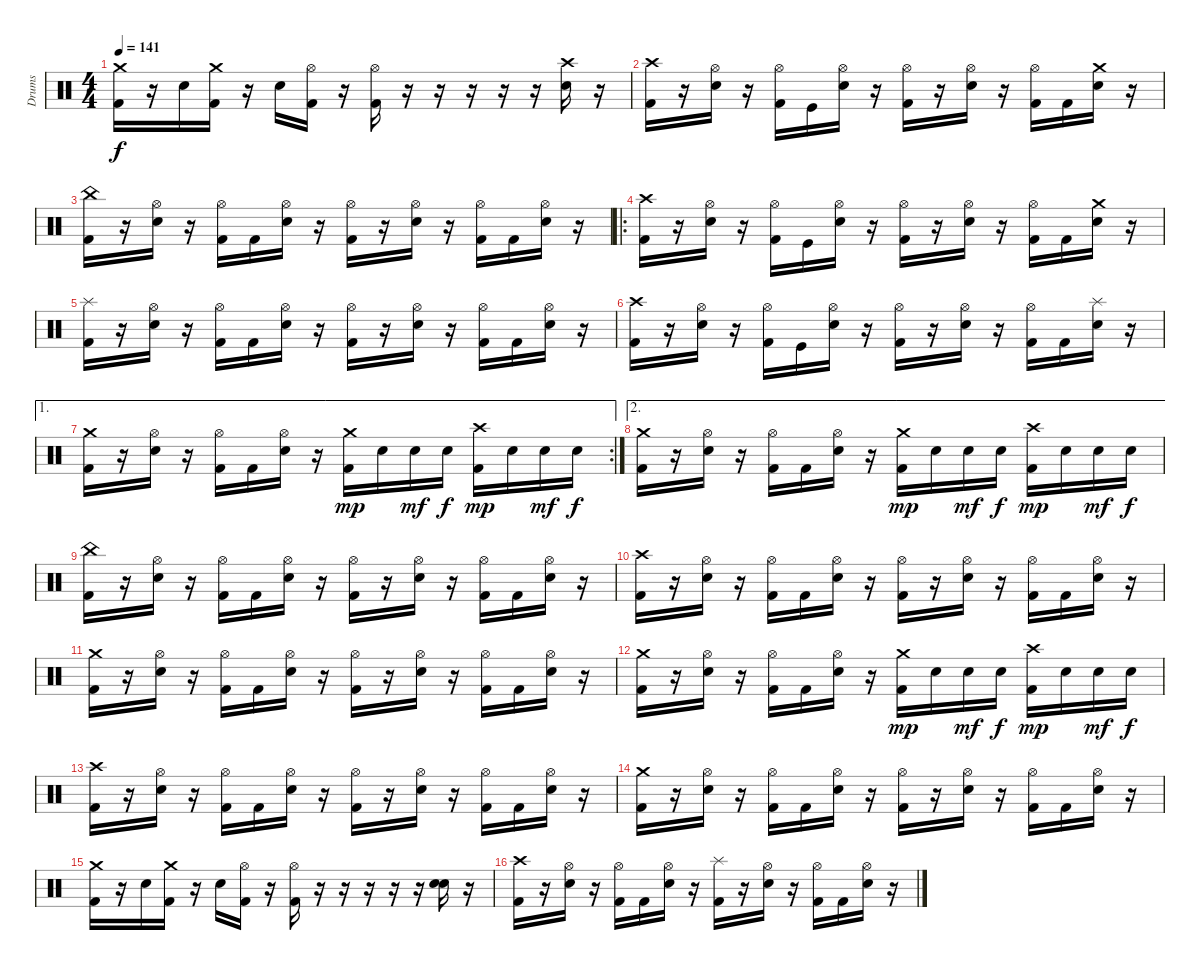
\track ("Drums" "Drums") {instrument percussion}
\staff {score}
\articulation defaults
\ts (4 4)
\tempo 141
\clef neutral
\ks c
("Crash medium (hit)" "Kick (hit) 2").16{dy f} r.16 "Electric Snare (hit)".16 ("Crash medium (hit)" "Kick (hit) 2").16 r.16 "Electric Snare (hit)".16 ("Hi-Hat (open)" "Kick (hit) 2").16 r.16 ("Hi-Hat (open)" "Kick (hit) 2").16 r.16 r.16 r.16 r.16 r.16 ("Crash high (hit)" "Electric Snare (hit)").16 r.16 |
("Crash high (hit)" "Kick (hit) 2").16 r.16 ("Hi-Hat (open)" "Electric Snare (hit)").16 r.16 ("Hi-Hat (open)" "Kick (hit) 2").16 "Kick (hit)".16 ("Hi-Hat (open)" "Electric Snare (hit)").16 r.16 ("Hi-Hat (open)" "Kick (hit) 2").16 r.16 ("Hi-Hat (open)" "Electric Snare (hit)").16 r.16 ("Hi-Hat (open)" "Kick (hit) 2").16 "Kick (hit) 2".16 ("Crash medium (hit)" "Electric Snare (hit)").16 r.16 |
("China (hit)" "Kick (hit) 2").16 r.16 ("Hi-Hat (open)" "Electric Snare (hit)").16 r.16 ("Hi-Hat (open)" "Kick (hit) 2").16 "Kick (hit) 2".16 ("Hi-Hat (open)" "Electric Snare (hit)").16 r.16 ("Hi-Hat (open)" "Kick (hit) 2").16 r.16 ("Hi-Hat (open)" "Electric Snare (hit)").16 r.16 ("Hi-Hat (open)" "Kick (hit) 2").16 "Kick (hit) 2".16 ("Hi-Hat (open)" "Electric Snare (hit)").16 r.16 |
\ro
("Crash high (hit)" "Kick (hit) 2").16 r.16 ("Hi-Hat (open)" "Electric Snare (hit)").16 r.16 ("Hi-Hat (open)" "Kick (hit) 2").16 "Kick (hit)".16 ("Hi-Hat (open)" "Electric Snare (hit)").16 r.16 ("Hi-Hat (open)" "Kick (hit) 2").16 r.16 ("Hi-Hat (open)" "Electric Snare (hit)").16 r.16 ("Hi-Hat (open)" "Kick (hit) 2").16 "Kick (hit) 2".16 ("Crash medium (hit)" "Electric Snare (hit)").16 r.16 |
("Splash (hit)" "Kick (hit) 2").16 r.16 ("Hi-Hat (open)" "Electric Snare (hit)").16 r.16 ("Hi-Hat (open)" "Kick (hit) 2").16 "Kick (hit) 2".16 ("Hi-Hat (open)" "Electric Snare (hit)").16 r.16 ("Hi-Hat (open)" "Kick (hit) 2").16 r.16 ("Hi-Hat (open)" "Electric Snare (hit)").16 r.16 ("Hi-Hat (open)" "Kick (hit) 2").16 "Kick (hit) 2".16 ("Hi-Hat (open)" "Electric Snare (hit)").16 r.16 |
("Crash high (hit)" "Kick (hit) 2").16 r.16 ("Hi-Hat (open)" "Electric Snare (hit)").16 r.16 ("Hi-Hat (open)" "Kick (hit) 2").16 "Kick (hit)".16 ("Hi-Hat (open)" "Electric Snare (hit)").16 r.16 ("Hi-Hat (open)" "Kick (hit) 2").16 r.16 ("Hi-Hat (open)" "Electric Snare (hit)").16 r.16 ("Hi-Hat (open)" "Kick (hit) 2").16 "Kick (hit) 2".16 ("Splash (hit)" "Electric Snare (hit)").16 r.16 |
\ae 1
\rc 2
("Crash medium (hit)" "Kick (hit) 2").16 r.16 ("Hi-Hat (open)" "Electric Snare (hit)").16 r.16 ("Hi-Hat (open)" "Kick (hit) 2").16 "Kick (hit) 2".16 ("Hi-Hat (open)" "Electric Snare (hit)").16 r.16 ("Crash medium (hit)" "Kick (hit) 2").16{dy mp} "Electric Snare (hit)".16 "Electric Snare (hit)".16{dy mf} "Electric Snare (hit)".16{dy f} ("Crash high (hit)" "Kick (hit) 2").16{dy mp} "Electric Snare (hit)".16 "Electric Snare (hit)".16{dy mf} "Electric Snare (hit)".16{dy f} |
\ae 2
("Crash medium (hit)" "Kick (hit) 2").16 r.16 ("Hi-Hat (open)" "Electric Snare (hit)").16 r.16 ("Hi-Hat (open)" "Kick (hit) 2").16 "Kick (hit) 2".16 ("Hi-Hat (open)" "Electric Snare (hit)").16 r.16 ("Crash medium (hit)" "Kick (hit) 2").16{dy mp} "Electric Snare (hit)".16 "Electric Snare (hit)".16{dy mf} "Electric Snare (hit)".16{dy f} ("Crash high (hit)" "Kick (hit) 2").16{dy mp} "Electric Snare (hit)".16 "Electric Snare (hit)".16{dy mf} "Electric Snare (hit)".16{dy f} |
("China (hit)" "Kick (hit) 2").16 r.16 ("Hi-Hat (open)" "Electric Snare (hit)").16 r.16 ("Hi-Hat (open)" "Kick (hit) 2").16 "Kick (hit) 2".16 ("Hi-Hat (open)" "Electric Snare (hit)").16 r.16 ("Hi-Hat (open)" "Kick (hit) 2").16 r.16 ("Hi-Hat (open)" "Electric Snare (hit)").16 r.16 ("Hi-Hat (open)" "Kick (hit) 2").16 "Kick (hit) 2".16 ("Hi-Hat (open)" "Electric Snare (hit)").16 r.16 |
("Crash high (hit)" "Kick (hit) 2").16 r.16 ("Hi-Hat (open)" "Electric Snare (hit)").16 r.16 ("Hi-Hat (open)" "Kick (hit) 2").16 "Kick (hit) 2".16 ("Hi-Hat (open)" "Electric Snare (hit)").16 r.16 ("Hi-Hat (open)" "Kick (hit) 2").16 r.16 ("Hi-Hat (open)" "Electric Snare (hit)").16 r.16 ("Hi-Hat (open)" "Kick (hit) 2").16 "Kick (hit) 2".16 ("Hi-Hat (open)" "Electric Snare (hit)").16 r.16 |
("Crash medium (hit)" "Kick (hit) 2").16 r.16 ("Hi-Hat (open)" "Electric Snare (hit)").16 r.16 ("Hi-Hat (open)" "Kick (hit) 2").16 "Kick (hit) 2".16 ("Hi-Hat (open)" "Electric Snare (hit)").16 r.16 ("Hi-Hat (open)" "Kick (hit) 2").16 r.16 ("Hi-Hat (open)" "Electric Snare (hit)").16 r.16 ("Hi-Hat (open)" "Kick (hit) 2").16 "Kick (hit) 2".16 ("Hi-Hat (open)" "Electric Snare (hit)").16 r.16 |
("Crash medium (hit)" "Kick (hit) 2").16 r.16 ("Hi-Hat (open)" "Electric Snare (hit)").16 r.16 ("Hi-Hat (open)" "Kick (hit) 2").16 "Kick (hit) 2".16 ("Hi-Hat (open)" "Electric Snare (hit)").16 r.16 ("Crash medium (hit)" "Kick (hit) 2").16{dy mp} "Electric Snare (hit)".16 "Electric Snare (hit)".16{dy mf} "Electric Snare (hit)".16{dy f} ("Crash high (hit)" "Kick (hit) 2").16{dy mp} "Electric Snare (hit)".16 "Electric Snare (hit)".16{dy mf} "Electric Snare (hit)".16{dy f} |
("Crash high (hit)" "Kick (hit) 2").16 r.16 ("Hi-Hat (open)" "Electric Snare (hit)").16 r.16 ("Hi-Hat (open)" "Kick (hit) 2").16 "Kick (hit) 2".16 ("Hi-Hat (open)" "Electric Snare (hit)").16 r.16 ("Hi-Hat (open)" "Kick (hit) 2").16 r.16 ("Hi-Hat (open)" "Electric Snare (hit)").16 r.16 ("Hi-Hat (open)" "Kick (hit) 2").16 "Kick (hit) 2".16 ("Hi-Hat (open)" "Electric Snare (hit)").16 r.16 |
("Crash medium (hit)" "Kick (hit) 2").16 r.16 ("Hi-Hat (open)" "Electric Snare (hit)").16 r.16 ("Hi-Hat (open)" "Kick (hit) 2").16 "Kick (hit) 2".16 ("Hi-Hat (open)" "Electric Snare (hit)").16 r.16 ("Hi-Hat (open)" "Kick (hit) 2").16 r.16 ("Hi-Hat (open)" "Electric Snare (hit)").16 r.16 ("Hi-Hat (open)" "Kick (hit) 2").16 "Kick (hit) 2".16 ("Hi-Hat (open)" "Electric Snare (hit)").16 r.16 |
("Crash medium (hit)" "Kick (hit) 2").16 r.16 "Electric Snare (hit)".16 ("Crash medium (hit)" "Kick (hit) 2").16 r.16 "Electric Snare (hit)".16 ("Hi-Hat (open)" "Kick (hit) 2").16 r.16 ("Hi-Hat (open)" "Kick (hit) 2").16 r.16 r.16 r.16 r.16 r.16 ("Electric Snare (hit)" "Electric Snare (hit)").16 r.16 |
("Crash high (hit)" "Kick (hit) 2").16 r.16 ("Hi-Hat (open)" "Electric Snare (hit)").16 r.16 ("Hi-Hat (open)" "Kick (hit) 2").16 "Kick (hit) 2".16 ("Hi-Hat (open)" "Electric Snare (hit)").16 r.16 ("Splash (hit)" "Kick (hit) 2").16 r.16 ("Hi-Hat (open)" "Electric Snare (hit)").16 r.16 ("Hi-Hat (open)" "Kick (hit) 2").16 "Kick (hit) 2".16 ("Hi-Hat (open)" "Electric Snare (hit)").16 r.16
